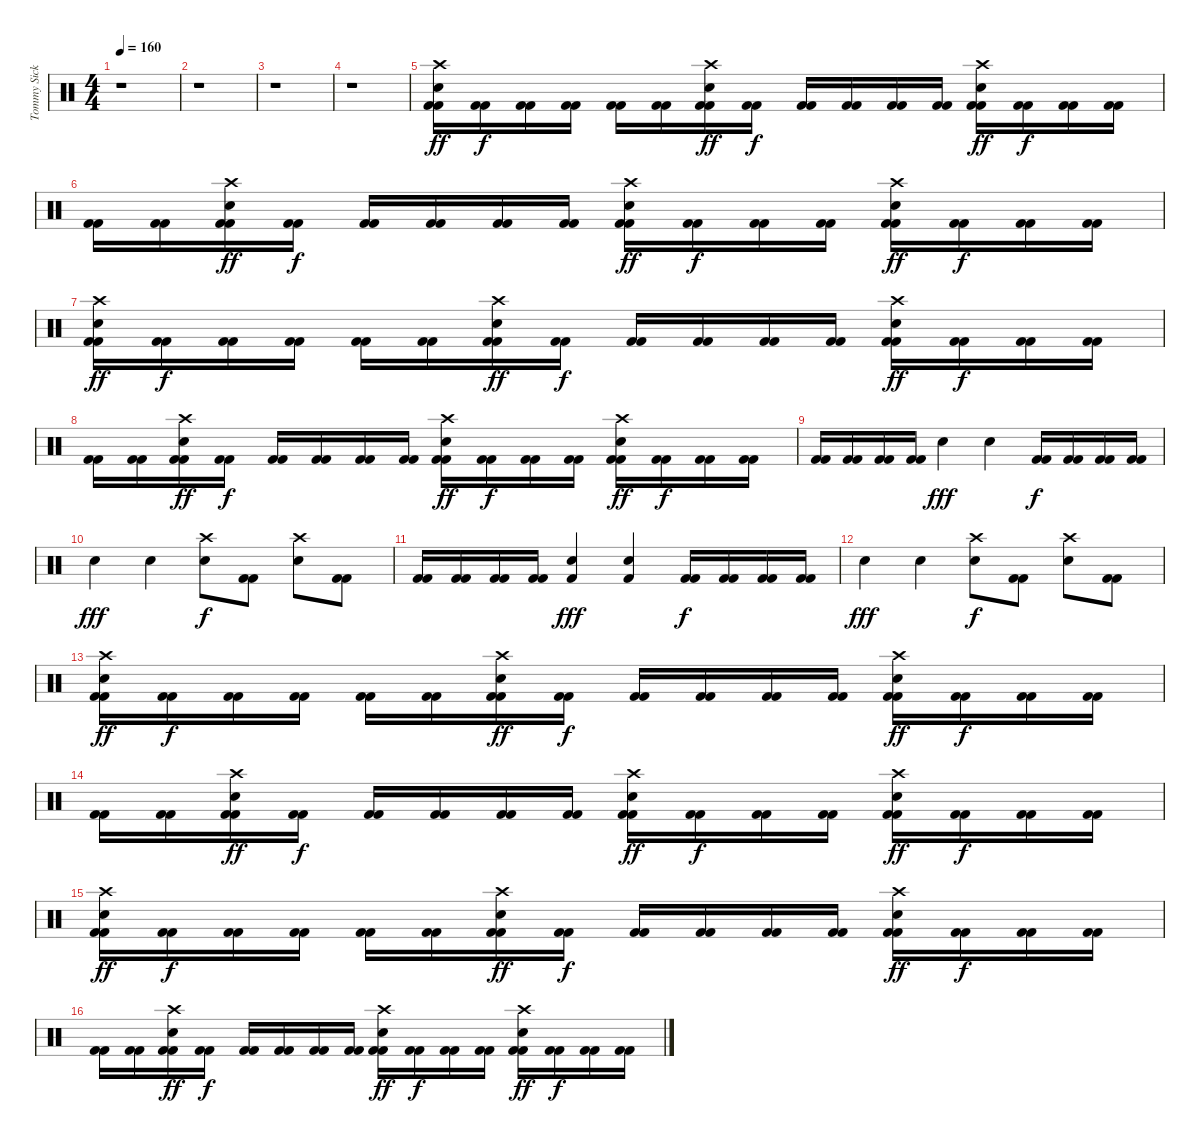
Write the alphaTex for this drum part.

\track ("Tommy Sickles" "Tommy Sick") {instrument percussion}
\staff {score}
\articulation defaults
\ts (4 4)
\tempo 160
\clef neutral
\ks c
r.1{dy ff} |
r.1 |
r.1 |
r.1 |
\section ("" "")
("Crash high (hit)" "Kick (hit) 2" "Kick (hit) 2" "Electric Snare (hit)").16 ("Kick (hit) 2" "Kick (hit) 2").16{dy f} ("Kick (hit) 2" "Kick (hit) 2").16 ("Kick (hit) 2" "Kick (hit) 2").16 ("Kick (hit) 2" "Kick (hit) 2").16 ("Kick (hit) 2" "Kick (hit) 2").16 ("Crash high (hit)" "Kick (hit) 2" "Kick (hit) 2" "Electric Snare (hit)").16{dy ff} ("Kick (hit) 2" "Kick (hit) 2").16{dy f} ("Kick (hit) 2" "Kick (hit) 2").16 ("Kick (hit) 2" "Kick (hit) 2").16 ("Kick (hit) 2" "Kick (hit) 2").16 ("Kick (hit) 2" "Kick (hit) 2").16 ("Crash high (hit)" "Kick (hit) 2" "Kick (hit) 2" "Electric Snare (hit)").16{dy ff} ("Kick (hit) 2" "Kick (hit) 2").16{dy f} ("Kick (hit) 2" "Kick (hit) 2").16 ("Kick (hit) 2" "Kick (hit) 2").16 |
("Kick (hit) 2" "Kick (hit) 2").16 ("Kick (hit) 2" "Kick (hit) 2").16 ("Crash high (hit)" "Kick (hit) 2" "Kick (hit) 2" "Electric Snare (hit)").16{dy ff} ("Kick (hit) 2" "Kick (hit) 2").16{dy f} ("Kick (hit) 2" "Kick (hit) 2").16 ("Kick (hit) 2" "Kick (hit) 2").16 ("Kick (hit) 2" "Kick (hit) 2").16 ("Kick (hit) 2" "Kick (hit) 2").16 ("Crash high (hit)" "Kick (hit) 2" "Kick (hit) 2" "Electric Snare (hit)").16{dy ff} ("Kick (hit) 2" "Kick (hit) 2").16{dy f} ("Kick (hit) 2" "Kick (hit) 2").16 ("Kick (hit) 2" "Kick (hit) 2").16 ("Crash high (hit)" "Kick (hit) 2" "Kick (hit) 2" "Electric Snare (hit)").16{dy ff} ("Kick (hit) 2" "Kick (hit) 2").16{dy f} ("Kick (hit) 2" "Kick (hit) 2").16 ("Kick (hit) 2" "Kick (hit) 2").16 |
("Crash high (hit)" "Kick (hit) 2" "Kick (hit) 2" "Electric Snare (hit)").16{dy ff} ("Kick (hit) 2" "Kick (hit) 2").16{dy f} ("Kick (hit) 2" "Kick (hit) 2").16 ("Kick (hit) 2" "Kick (hit) 2").16 ("Kick (hit) 2" "Kick (hit) 2").16 ("Kick (hit) 2" "Kick (hit) 2").16 ("Crash high (hit)" "Kick (hit) 2" "Kick (hit) 2" "Electric Snare (hit)").16{dy ff} ("Kick (hit) 2" "Kick (hit) 2").16{dy f} ("Kick (hit) 2" "Kick (hit) 2").16 ("Kick (hit) 2" "Kick (hit) 2").16 ("Kick (hit) 2" "Kick (hit) 2").16 ("Kick (hit) 2" "Kick (hit) 2").16 ("Crash high (hit)" "Kick (hit) 2" "Kick (hit) 2" "Electric Snare (hit)").16{dy ff} ("Kick (hit) 2" "Kick (hit) 2").16{dy f} ("Kick (hit) 2" "Kick (hit) 2").16 ("Kick (hit) 2" "Kick (hit) 2").16 |
("Kick (hit) 2" "Kick (hit) 2").16 ("Kick (hit) 2" "Kick (hit) 2").16 ("Crash high (hit)" "Kick (hit) 2" "Kick (hit) 2" "Electric Snare (hit)").16{dy ff} ("Kick (hit) 2" "Kick (hit) 2").16{dy f} ("Kick (hit) 2" "Kick (hit) 2").16 ("Kick (hit) 2" "Kick (hit) 2").16 ("Kick (hit) 2" "Kick (hit) 2").16 ("Kick (hit) 2" "Kick (hit) 2").16 ("Crash high (hit)" "Kick (hit) 2" "Kick (hit) 2" "Electric Snare (hit)").16{dy ff} ("Kick (hit) 2" "Kick (hit) 2").16{dy f} ("Kick (hit) 2" "Kick (hit) 2").16 ("Kick (hit) 2" "Kick (hit) 2").16 ("Crash high (hit)" "Kick (hit) 2" "Kick (hit) 2" "Electric Snare (hit)").16{dy ff} ("Kick (hit) 2" "Kick (hit) 2").16{dy f} ("Kick (hit) 2" "Kick (hit) 2").16 ("Kick (hit) 2" "Kick (hit) 2").16 |
("Kick (hit) 2" "Kick (hit) 2").16 ("Kick (hit) 2" "Kick (hit) 2").16 ("Kick (hit) 2" "Kick (hit) 2").16 ("Kick (hit) 2" "Kick (hit) 2").16 "Electric Snare (hit)".4{dy fff} "Electric Snare (hit)".4 ("Kick (hit) 2" "Kick (hit) 2").16{dy f} ("Kick (hit) 2" "Kick (hit) 2").16 ("Kick (hit) 2" "Kick (hit) 2").16 ("Kick (hit) 2" "Kick (hit) 2").16 |
"Electric Snare (hit)".4{dy fff} "Electric Snare (hit)".4 ("Crash high (hit)" "Electric Snare (hit)").8{dy f} ("Kick (hit) 2" "Kick (hit) 2").8 ("Crash high (hit)" "Electric Snare (hit)").8 ("Kick (hit) 2" "Kick (hit) 2").8 |
("Kick (hit) 2" "Kick (hit) 2").16 ("Kick (hit) 2" "Kick (hit) 2").16 ("Kick (hit) 2" "Kick (hit) 2").16 ("Kick (hit) 2" "Kick (hit) 2").16 ("Kick (hit) 2" "Electric Snare (hit)").4{dy fff} ("Kick (hit) 2" "Electric Snare (hit)").4 ("Kick (hit) 2" "Kick (hit) 2").16{dy f} ("Kick (hit) 2" "Kick (hit) 2").16 ("Kick (hit) 2" "Kick (hit) 2").16 ("Kick (hit) 2" "Kick (hit) 2").16 |
"Electric Snare (hit)".4{dy fff} "Electric Snare (hit)".4 ("Crash high (hit)" "Electric Snare (hit)").8{dy f} ("Kick (hit) 2" "Kick (hit) 2").8 ("Crash high (hit)" "Electric Snare (hit)").8 ("Kick (hit) 2" "Kick (hit) 2").8 |
("Crash high (hit)" "Kick (hit) 2" "Kick (hit) 2" "Electric Snare (hit)").16{dy ff} ("Kick (hit) 2" "Kick (hit) 2").16{dy f} ("Kick (hit) 2" "Kick (hit) 2").16 ("Kick (hit) 2" "Kick (hit) 2").16 ("Kick (hit) 2" "Kick (hit) 2").16 ("Kick (hit) 2" "Kick (hit) 2").16 ("Crash high (hit)" "Kick (hit) 2" "Kick (hit) 2" "Electric Snare (hit)").16{dy ff} ("Kick (hit) 2" "Kick (hit) 2").16{dy f} ("Kick (hit) 2" "Kick (hit) 2").16 ("Kick (hit) 2" "Kick (hit) 2").16 ("Kick (hit) 2" "Kick (hit) 2").16 ("Kick (hit) 2" "Kick (hit) 2").16 ("Crash high (hit)" "Kick (hit) 2" "Kick (hit) 2" "Electric Snare (hit)").16{dy ff} ("Kick (hit) 2" "Kick (hit) 2").16{dy f} ("Kick (hit) 2" "Kick (hit) 2").16 ("Kick (hit) 2" "Kick (hit) 2").16 |
("Kick (hit) 2" "Kick (hit) 2").16 ("Kick (hit) 2" "Kick (hit) 2").16 ("Crash high (hit)" "Kick (hit) 2" "Kick (hit) 2" "Electric Snare (hit)").16{dy ff} ("Kick (hit) 2" "Kick (hit) 2").16{dy f} ("Kick (hit) 2" "Kick (hit) 2").16 ("Kick (hit) 2" "Kick (hit) 2").16 ("Kick (hit) 2" "Kick (hit) 2").16 ("Kick (hit) 2" "Kick (hit) 2").16 ("Crash high (hit)" "Kick (hit) 2" "Kick (hit) 2" "Electric Snare (hit)").16{dy ff} ("Kick (hit) 2" "Kick (hit) 2").16{dy f} ("Kick (hit) 2" "Kick (hit) 2").16 ("Kick (hit) 2" "Kick (hit) 2").16 ("Crash high (hit)" "Kick (hit) 2" "Kick (hit) 2" "Electric Snare (hit)").16{dy ff} ("Kick (hit) 2" "Kick (hit) 2").16{dy f} ("Kick (hit) 2" "Kick (hit) 2").16 ("Kick (hit) 2" "Kick (hit) 2").16 |
("Crash high (hit)" "Kick (hit) 2" "Kick (hit) 2" "Electric Snare (hit)").16{dy ff} ("Kick (hit) 2" "Kick (hit) 2").16{dy f} ("Kick (hit) 2" "Kick (hit) 2").16 ("Kick (hit) 2" "Kick (hit) 2").16 ("Kick (hit) 2" "Kick (hit) 2").16 ("Kick (hit) 2" "Kick (hit) 2").16 ("Crash high (hit)" "Kick (hit) 2" "Kick (hit) 2" "Electric Snare (hit)").16{dy ff} ("Kick (hit) 2" "Kick (hit) 2").16{dy f} ("Kick (hit) 2" "Kick (hit) 2").16 ("Kick (hit) 2" "Kick (hit) 2").16 ("Kick (hit) 2" "Kick (hit) 2").16 ("Kick (hit) 2" "Kick (hit) 2").16 ("Crash high (hit)" "Kick (hit) 2" "Kick (hit) 2" "Electric Snare (hit)").16{dy ff} ("Kick (hit) 2" "Kick (hit) 2").16{dy f} ("Kick (hit) 2" "Kick (hit) 2").16 ("Kick (hit) 2" "Kick (hit) 2").16 |
("Kick (hit) 2" "Kick (hit) 2").16 ("Kick (hit) 2" "Kick (hit) 2").16 ("Crash high (hit)" "Kick (hit) 2" "Kick (hit) 2" "Electric Snare (hit)").16{dy ff} ("Kick (hit) 2" "Kick (hit) 2").16{dy f} ("Kick (hit) 2" "Kick (hit) 2").16 ("Kick (hit) 2" "Kick (hit) 2").16 ("Kick (hit) 2" "Kick (hit) 2").16 ("Kick (hit) 2" "Kick (hit) 2").16 ("Crash high (hit)" "Kick (hit) 2" "Kick (hit) 2" "Electric Snare (hit)").16{dy ff} ("Kick (hit) 2" "Kick (hit) 2").16{dy f} ("Kick (hit) 2" "Kick (hit) 2").16 ("Kick (hit) 2" "Kick (hit) 2").16 ("Crash high (hit)" "Kick (hit) 2" "Kick (hit) 2" "Electric Snare (hit)").16{dy ff} ("Kick (hit) 2" "Kick (hit) 2").16{dy f} ("Kick (hit) 2" "Kick (hit) 2").16 ("Kick (hit) 2" "Kick (hit) 2").16
